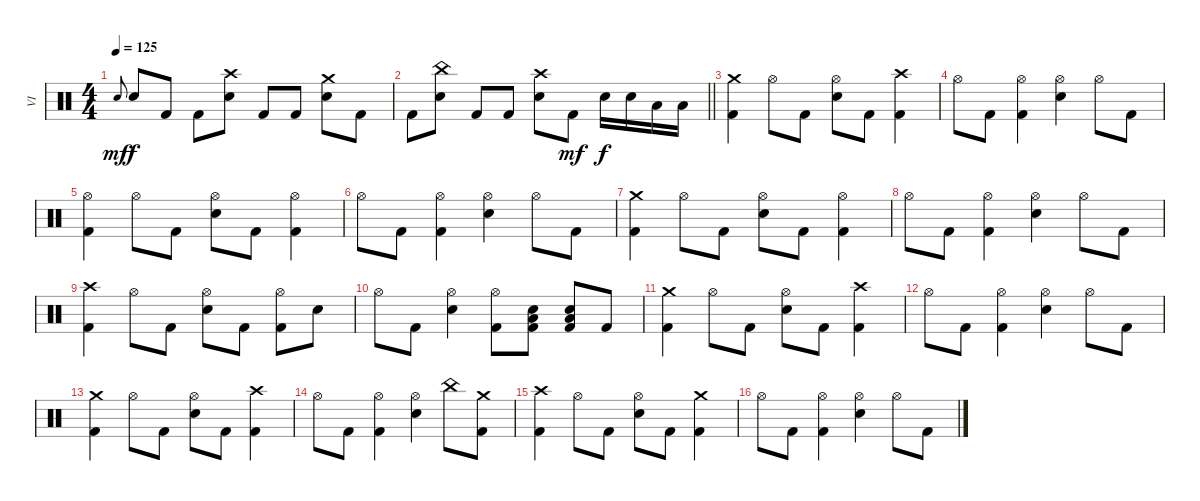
\track ("VI" "VI") {instrument percussion}
\staff {score}
\articulation defaults
\ts (4 4)
\tempo 125
\clef neutral
\ks c "Electric Snare (hit)".8{gr onbeat dy mf} "Electric Snare (hit)".8{dy f} "Kick (hit) 2".8 "Kick (hit) 2".8
("Crash high (hit)" "Electric Snare (hit)").8 "Kick (hit) 2".8 "Kick (hit) 2".8 ("Crash medium (hit)" "Electric Snare (hit)").8 "Kick (hit) 2".8 |
\barLineRight lightlight "Kick (hit) 2".8
("China (hit)" "Electric Snare (hit)").8 "Kick (hit) 2".8 "Kick (hit) 2".8 ("Crash high (hit)" "Electric Snare (hit)").8 "Kick (hit) 2".8{dy mf} "Electric Snare (hit)".16{dy f} "Electric Snare (hit)".16 "Low Tom (hit)".16 "Low Tom (hit)".16 |
\section ("" "")
("Crash medium (hit)" "Kick (hit) 2").4 "Hi-Hat (open)".8 "Kick (hit) 2".8 ("Hi-Hat (open)" "Electric Snare (hit)").8 "Kick (hit) 2".8 ("Crash high (hit)" "Kick (hit) 2").4 |
"Hi-Hat (open)".8 "Kick (hit) 2".8 ("Hi-Hat (open)" "Kick (hit) 2").4 ("Hi-Hat (open)" "Electric Snare (hit)").4 "Hi-Hat (open)".8 "Kick (hit) 2".8 |
("Hi-Hat (open)" "Kick (hit) 2").4 "Hi-Hat (open)".8 "Kick (hit) 2".8 ("Hi-Hat (open)" "Electric Snare (hit)").8 "Kick (hit) 2".8 ("Hi-Hat (open)" "Kick (hit) 2").4 |
"Hi-Hat (open)".8 "Kick (hit) 2".8 ("Hi-Hat (open)" "Kick (hit) 2").4 ("Hi-Hat (open)" "Electric Snare (hit)").4 "Hi-Hat (open)".8 "Kick (hit) 2".8 |
("Crash medium (hit)" "Kick (hit) 2").4 "Hi-Hat (open)".8 "Kick (hit) 2".8 ("Hi-Hat (open)" "Electric Snare (hit)").8 "Kick (hit) 2".8 ("Hi-Hat (open)" "Kick (hit) 2").4 |
"Hi-Hat (open)".8 "Kick (hit) 2".8 ("Hi-Hat (open)" "Kick (hit) 2").4 ("Hi-Hat (open)" "Electric Snare (hit)").4 "Hi-Hat (open)".8 "Kick (hit) 2".8 |
("Crash high (hit)" "Kick (hit) 2").4 "Hi-Hat (open)".8 "Kick (hit) 2".8 ("Hi-Hat (open)" "Electric Snare (hit)").8 "Kick (hit) 2".8 ("Hi-Hat (open)" "Kick (hit) 2").8 "Electric Snare (hit)".8 |
"Hi-Hat (open)".8 "Kick (hit) 2".8 ("Hi-Hat (open)" "Electric Snare (hit)").4 ("Hi-Hat (open)" "Kick (hit) 2").8 ("Low Floor Tom (hit)" "Electric Snare (hit)" "Kick (hit) 2").8 ("Low Floor Tom (hit)" "Electric Snare (hit)" "Kick (hit) 2").8 "Kick (hit) 2".8 |
("Crash medium (hit)" "Kick (hit) 2").4 "Hi-Hat (open)".8 "Kick (hit) 2".8 ("Hi-Hat (open)" "Electric Snare (hit)").8 "Kick (hit) 2".8 ("Crash high (hit)" "Kick (hit) 2").4 |
"Hi-Hat (open)".8 "Kick (hit) 2".8 ("Hi-Hat (open)" "Kick (hit) 2").4 ("Hi-Hat (open)" "Electric Snare (hit)").4 "Hi-Hat (open)".8 "Kick (hit) 2".8 |
("Crash medium (hit)" "Kick (hit) 2").4 "Hi-Hat (open)".8 "Kick (hit) 2".8 ("Hi-Hat (open)" "Electric Snare (hit)").8 "Kick (hit) 2".8 ("Crash high (hit)" "Kick (hit) 2").4 |
"Hi-Hat (open)".8 "Kick (hit) 2".8 ("Hi-Hat (open)" "Kick (hit) 2").4 ("Hi-Hat (open)" "Electric Snare (hit)").4 "China (hit)".8 ("Crash medium (hit)" "Kick (hit) 2").8 |
("Crash high (hit)" "Kick (hit) 2").4 "Hi-Hat (open)".8 "Kick (hit) 2".8 ("Hi-Hat (open)" "Electric Snare (hit)").8 "Kick (hit) 2".8 ("Crash medium (hit)" "Kick (hit) 2").4 |
"Hi-Hat (open)".8 "Kick (hit) 2".8 ("Hi-Hat (open)" "Kick (hit) 2").4 ("Hi-Hat (open)" "Electric Snare (hit)").4 "Hi-Hat (open)".8 "Kick (hit) 2".8
